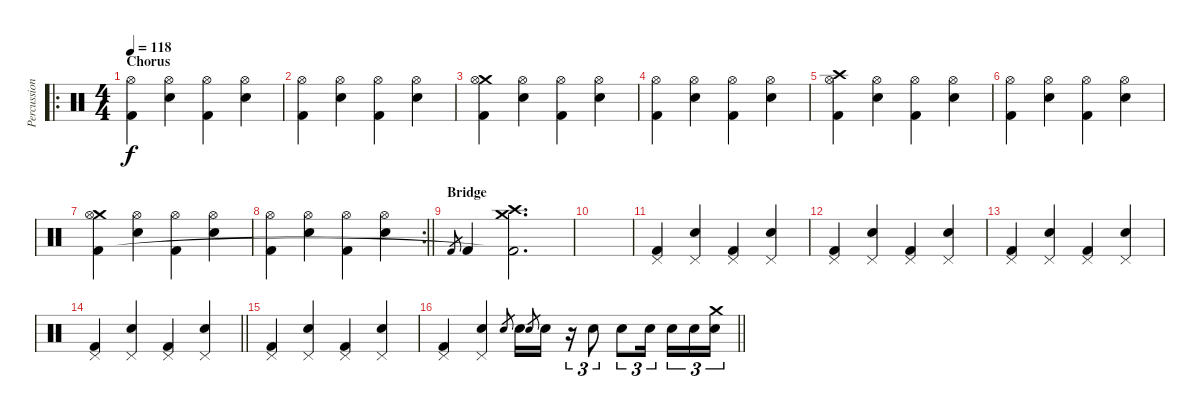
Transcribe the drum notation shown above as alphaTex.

\track ("Percussion" "Percussion") {instrument percussion}
\staff {score}
\articulation defaults
\ro
\ts (4 4)
\section ("" "Chorus")
\tempo 118
\clef neutral
\ks c
("Hi-Hat (open)" "Kick (hit) 2").4{dy f} ("Hi-Hat (open)" "Electric Snare (hit)").4 ("Hi-Hat (open)" "Kick (hit) 2").4 ("Hi-Hat (open)" "Electric Snare (hit)").4 |
("Hi-Hat (open)" "Kick (hit) 2").4 ("Hi-Hat (open)" "Electric Snare (hit)").4 ("Hi-Hat (open)" "Kick (hit) 2").4 ("Hi-Hat (open)" "Electric Snare (hit)").4 |
("Crash medium (hit)" "Hi-Hat (open)" "Kick (hit) 2").4 ("Hi-Hat (open)" "Electric Snare (hit)").4 ("Hi-Hat (open)" "Kick (hit) 2").4 ("Hi-Hat (open)" "Electric Snare (hit)").4 |
("Hi-Hat (open)" "Kick (hit) 2").4 ("Hi-Hat (open)" "Electric Snare (hit)").4 ("Hi-Hat (open)" "Kick (hit) 2").4 ("Hi-Hat (open)" "Electric Snare (hit)").4 |
("Crash high (hit)" "Hi-Hat (open)" "Kick (hit) 2").4 ("Hi-Hat (open)" "Electric Snare (hit)").4 ("Hi-Hat (open)" "Kick (hit) 2").4 ("Hi-Hat (open)" "Electric Snare (hit)").4 |
("Hi-Hat (open)" "Kick (hit) 2").4 ("Hi-Hat (open)" "Electric Snare (hit)").4 ("Hi-Hat (open)" "Kick (hit) 2").4 ("Hi-Hat (open)" "Electric Snare (hit)").4 |
("Crash medium (hit)" "Hi-Hat (open)" "Kick (hit) 2").4 ("Hi-Hat (open)" "Electric Snare (hit)").4 ("Hi-Hat (open)" "Kick (hit) 2").4 ("Hi-Hat (open)" "Electric Snare (hit)").4 |
\rc 2
\barLineRight lightlight
("Hi-Hat (open)" "Kick (hit) 2").4 ("Hi-Hat (open)" "Electric Snare (hit)").4 ("Hi-Hat (open)" "Kick (hit) 2").4 ("Hi-Hat (open)" "Electric Snare (hit)").4 |
\section ("" "Bridge")
"Kick (hit) 2".8{gr} "Kick (hit) 2".4 ("Crash high (hit)" "Crash medium (hit)" "Kick (hit) 2"{t}).2{d} |
|
("Pedal Hi-Hat (hit)" "Kick (hit) 2").4 ("Pedal Hi-Hat (hit)" "Electric Snare (hit)").4 ("Pedal Hi-Hat (hit)" "Kick (hit) 2").4 ("Pedal Hi-Hat (hit)" "Electric Snare (hit)").4 |
("Pedal Hi-Hat (hit)" "Kick (hit) 2").4 ("Pedal Hi-Hat (hit)" "Electric Snare (hit)").4 ("Pedal Hi-Hat (hit)" "Kick (hit) 2").4 ("Pedal Hi-Hat (hit)" "Electric Snare (hit)").4 |
("Pedal Hi-Hat (hit)" "Kick (hit) 2").4 ("Pedal Hi-Hat (hit)" "Electric Snare (hit)").4 ("Pedal Hi-Hat (hit)" "Kick (hit) 2").4 ("Pedal Hi-Hat (hit)" "Electric Snare (hit)").4 |
\barLineRight lightlight
("Pedal Hi-Hat (hit)" "Kick (hit) 2").4 ("Pedal Hi-Hat (hit)" "Electric Snare (hit)").4 ("Pedal Hi-Hat (hit)" "Kick (hit) 2").4 ("Pedal Hi-Hat (hit)" "Electric Snare (hit)").4 |
("Pedal Hi-Hat (hit)" "Kick (hit) 2").4 ("Pedal Hi-Hat (hit)" "Electric Snare (hit)").4 ("Pedal Hi-Hat (hit)" "Kick (hit) 2").4 ("Pedal Hi-Hat (hit)" "Electric Snare (hit)").4 |
\barLineRight lightlight
("Pedal Hi-Hat (hit)" "Kick (hit) 2").4 ("Pedal Hi-Hat (hit)" "Electric Snare (hit)").4 "Electric Snare (hit)".8{gr} "Electric Snare (hit)".16 "Electric Snare (hit)".8{gr} "Electric Snare (hit)".16 r.16{tu (3 2)} "Electric Snare (hit)".8{tu (3 2)} "Electric Snare (hit)".8{tu (3 2)} "Electric Snare (hit)".16{tu (3 2) beam splitsecondary} "Electric Snare (hit)".16{tu (3 2)} "Electric Snare (hit)".16{tu (3 2)} ("Crash medium (hit)" "Electric Snare (hit)").16{tu (3 2)}
